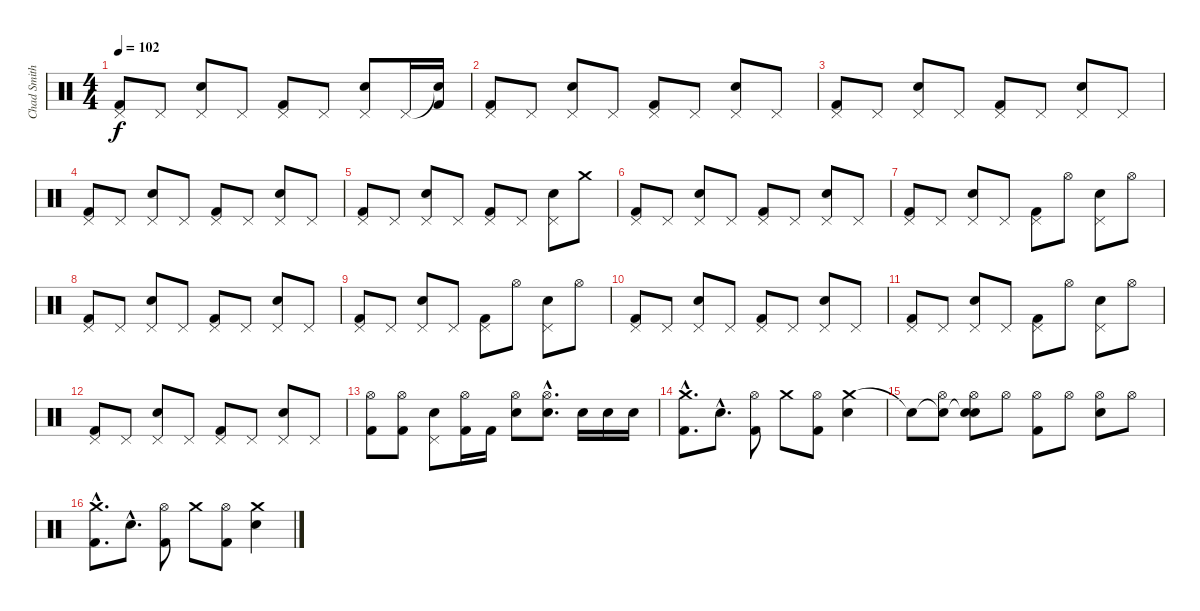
\track ("Chad Smith (Batterie)" "Chad Smith") {instrument percussion}
\staff {score}
\articulation defaults
\ts (4 4)
\tempo 102
\clef neutral
\ks c
("Pedal Hi-Hat (hit)" "Kick (hit) 2").8{dy f} "Pedal Hi-Hat (hit)".8 ("Pedal Hi-Hat (hit)" "Electric Snare (hit)").8 "Pedal Hi-Hat (hit)".8 ("Pedal Hi-Hat (hit)" "Kick (hit) 2").8 "Pedal Hi-Hat (hit)".8 ("Pedal Hi-Hat (hit)" "Electric Snare (hit)").8 "Pedal Hi-Hat (hit)".16 ("Snare (hit)"{t} "Kick (hit) 2").16 |
("Pedal Hi-Hat (hit)" "Kick (hit) 2").8 "Pedal Hi-Hat (hit)".8 ("Pedal Hi-Hat (hit)" "Electric Snare (hit)").8 "Pedal Hi-Hat (hit)".8 ("Pedal Hi-Hat (hit)" "Kick (hit) 2").8 "Pedal Hi-Hat (hit)".8 ("Pedal Hi-Hat (hit)" "Electric Snare (hit)").8 "Pedal Hi-Hat (hit)".8 |
("Pedal Hi-Hat (hit)" "Kick (hit) 2").8 "Pedal Hi-Hat (hit)".8 ("Pedal Hi-Hat (hit)" "Electric Snare (hit)").8 "Pedal Hi-Hat (hit)".8 ("Pedal Hi-Hat (hit)" "Kick (hit) 2").8 "Pedal Hi-Hat (hit)".8 ("Pedal Hi-Hat (hit)" "Electric Snare (hit)").8 "Pedal Hi-Hat (hit)".8 |
("Pedal Hi-Hat (hit)" "Kick (hit) 2").8 "Pedal Hi-Hat (hit)".8 ("Pedal Hi-Hat (hit)" "Electric Snare (hit)").8 "Pedal Hi-Hat (hit)".8 ("Pedal Hi-Hat (hit)" "Kick (hit) 2").8 "Pedal Hi-Hat (hit)".8 ("Pedal Hi-Hat (hit)" "Electric Snare (hit)").8 "Pedal Hi-Hat (hit)".8 |
("Pedal Hi-Hat (hit)" "Kick (hit) 2").8 "Pedal Hi-Hat (hit)".8 ("Pedal Hi-Hat (hit)" "Electric Snare (hit)").8 "Pedal Hi-Hat (hit)".8 ("Pedal Hi-Hat (hit)" "Kick (hit) 2").8 "Pedal Hi-Hat (hit)".8 ("Pedal Hi-Hat (hit)" "Electric Snare (hit)").8 "Crash medium (hit)".8 |
("Pedal Hi-Hat (hit)" "Kick (hit) 2").8 "Pedal Hi-Hat (hit)".8 ("Pedal Hi-Hat (hit)" "Electric Snare (hit)").8 "Pedal Hi-Hat (hit)".8 ("Pedal Hi-Hat (hit)" "Kick (hit) 2").8 "Pedal Hi-Hat (hit)".8 ("Pedal Hi-Hat (hit)" "Electric Snare (hit)").8 "Pedal Hi-Hat (hit)".8 |
("Pedal Hi-Hat (hit)" "Kick (hit) 2").8 "Pedal Hi-Hat (hit)".8 ("Pedal Hi-Hat (hit)" "Electric Snare (hit)").8 "Pedal Hi-Hat (hit)".8 ("Pedal Hi-Hat (hit)" "Kick (hit) 2").8 "Hi-Hat (open)".8 ("Pedal Hi-Hat (hit)" "Electric Snare (hit)").8 "Hi-Hat (open)".8 |
("Pedal Hi-Hat (hit)" "Kick (hit) 2").8 "Pedal Hi-Hat (hit)".8 ("Pedal Hi-Hat (hit)" "Electric Snare (hit)").8 "Pedal Hi-Hat (hit)".8 ("Pedal Hi-Hat (hit)" "Kick (hit) 2").8 "Pedal Hi-Hat (hit)".8 ("Pedal Hi-Hat (hit)" "Electric Snare (hit)").8 "Pedal Hi-Hat (hit)".8 |
("Pedal Hi-Hat (hit)" "Kick (hit) 2").8 "Pedal Hi-Hat (hit)".8 ("Pedal Hi-Hat (hit)" "Electric Snare (hit)").8 "Pedal Hi-Hat (hit)".8 ("Pedal Hi-Hat (hit)" "Kick (hit) 2").8 "Hi-Hat (open)".8 ("Pedal Hi-Hat (hit)" "Electric Snare (hit)").8 "Hi-Hat (open)".8 |
("Pedal Hi-Hat (hit)" "Kick (hit) 2").8 "Pedal Hi-Hat (hit)".8 ("Pedal Hi-Hat (hit)" "Electric Snare (hit)").8 "Pedal Hi-Hat (hit)".8 ("Pedal Hi-Hat (hit)" "Kick (hit) 2").8 "Pedal Hi-Hat (hit)".8 ("Pedal Hi-Hat (hit)" "Electric Snare (hit)").8 "Pedal Hi-Hat (hit)".8 |
("Pedal Hi-Hat (hit)" "Kick (hit) 2").8 "Pedal Hi-Hat (hit)".8 ("Pedal Hi-Hat (hit)" "Electric Snare (hit)").8 "Pedal Hi-Hat (hit)".8 ("Pedal Hi-Hat (hit)" "Kick (hit) 2").8 "Hi-Hat (open)".8 ("Pedal Hi-Hat (hit)" "Electric Snare (hit)").8 "Hi-Hat (open)".8 |
("Pedal Hi-Hat (hit)" "Kick (hit) 2").8 "Pedal Hi-Hat (hit)".8 ("Pedal Hi-Hat (hit)" "Electric Snare (hit)").8 "Pedal Hi-Hat (hit)".8 ("Pedal Hi-Hat (hit)" "Kick (hit) 2").8 "Pedal Hi-Hat (hit)".8 ("Pedal Hi-Hat (hit)" "Electric Snare (hit)").8 "Pedal Hi-Hat (hit)".8 |
("Hi-Hat (open)" "Kick (hit) 2").8 ("Hi-Hat (open)" "Kick (hit) 2").8 ("Pedal Hi-Hat (hit)" "Electric Snare (hit)").8 ("Hi-Hat (open)" "Kick (hit) 2").16 "Kick (hit) 2".16 ("Hi-Hat (open)" "Electric Snare (hit)").8 ("Hi-Hat (open)"{hac} "Electric Snare (hit)"{hac}).8{d} "Electric Snare (hit)".16 "Electric Snare (hit)".16 "Electric Snare (hit)".16 |
("Crash medium (hit)"{hac} "Kick (hit) 2"{hac}).8{d} "Electric Snare (hit)"{hac}.8{d} ("Hi-Hat (open)" "Kick (hit) 2").8 "Crash medium (hit)".8 ("Hi-Hat (open)" "Kick (hit) 2").8 ("Crash medium (hit)" "Electric Snare (hit)").4 |
"Snare (hit)"{t}.8 ("Snare (hit)"{t} "Hi-Hat (open)").8 ("Snare (hit)"{t} "Hi-Hat (open)" "Electric Snare (hit)").8 "Hi-Hat (open)".8 ("Hi-Hat (open)" "Kick (hit) 2").8 "Hi-Hat (open)".8 ("Hi-Hat (open)" "Electric Snare (hit)").8 "Hi-Hat (open)".8 |
("Crash medium (hit)"{hac} "Kick (hit) 2"{hac}).8{d} "Electric Snare (hit)"{hac}.8{d} ("Hi-Hat (open)" "Kick (hit) 2").8 "Crash medium (hit)".8 ("Hi-Hat (open)" "Kick (hit) 2").8 ("Crash medium (hit)" "Electric Snare (hit)").4
